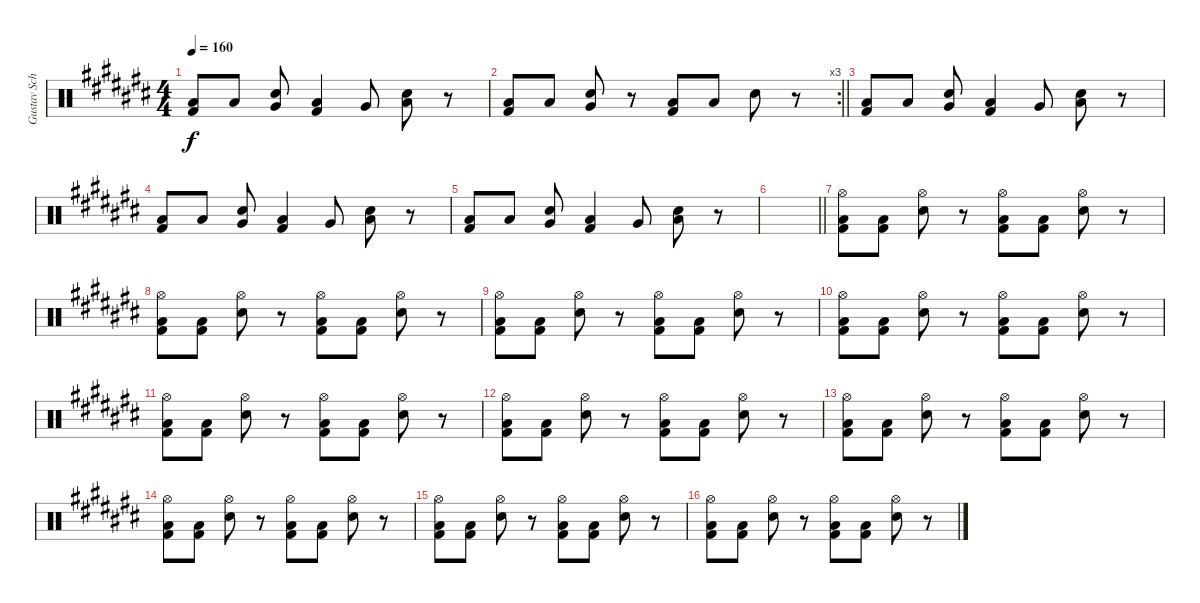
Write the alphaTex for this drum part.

\track ("Gustav Schäfer" "Gustav Sch") {instrument percussion}
\staff {score}
\articulation defaults
\ts (4 4)
\tempo 160
\clef neutral
\ks c#
("Low Floor Tom (hit)" "Kick (hit) 2").8{dy f} "Low Floor Tom (hit)".8 ("Electric Snare (hit)" "Very Low Tom (hit)").8 ("Low Floor Tom (hit)" "Kick (hit) 2").4 "Very Low Tom (hit)".8 ("Electric Snare (hit)" "Low Floor Tom (hit)").8 r.8 |
\rc 3
\barLineRight lightlight
("Low Floor Tom (hit)" "Kick (hit) 2").8 "Low Floor Tom (hit)".8 ("Electric Snare (hit)" "Very Low Tom (hit)").8 r.8 ("Low Floor Tom (hit)" "Kick (hit) 2").8 "Low Floor Tom (hit)".8 "Electric Snare (hit)".8 r.8 |
("Low Floor Tom (hit)" "Kick (hit) 2").8 "Low Floor Tom (hit)".8 ("Electric Snare (hit)" "Very Low Tom (hit)").8 ("Low Floor Tom (hit)" "Kick (hit) 2").4 "Very Low Tom (hit)".8 ("Electric Snare (hit)" "Low Floor Tom (hit)").8 r.8 |
("Low Floor Tom (hit)" "Kick (hit) 2").8 "Low Floor Tom (hit)".8 ("Electric Snare (hit)" "Very Low Tom (hit)").8 ("Low Floor Tom (hit)" "Kick (hit) 2").4 "Very Low Tom (hit)".8 ("Electric Snare (hit)" "Low Floor Tom (hit)").8 r.8 |
("Low Floor Tom (hit)" "Kick (hit) 2").8 "Low Floor Tom (hit)".8 ("Electric Snare (hit)" "Very Low Tom (hit)").8 ("Low Floor Tom (hit)" "Kick (hit) 2").4 "Very Low Tom (hit)".8 ("Electric Snare (hit)" "Low Floor Tom (hit)").8 r.8 |
\barLineRight lightlight
|
("Low Floor Tom (hit)" "Kick (hit) 2" "Hi-Hat (open)").8 ("Low Floor Tom (hit)" "Kick (hit) 2").8 ("Electric Snare (hit)" "Hi-Hat (open)").8 r.8 ("Low Floor Tom (hit)" "Kick (hit) 2" "Hi-Hat (open)").8 ("Low Floor Tom (hit)" "Kick (hit) 2").8 ("Electric Snare (hit)" "Hi-Hat (open)").8 r.8 |
("Low Floor Tom (hit)" "Kick (hit) 2" "Hi-Hat (open)").8 ("Low Floor Tom (hit)" "Kick (hit) 2").8 ("Electric Snare (hit)" "Hi-Hat (open)").8 r.8 ("Low Floor Tom (hit)" "Kick (hit) 2" "Hi-Hat (open)").8 ("Low Floor Tom (hit)" "Kick (hit) 2").8 ("Electric Snare (hit)" "Hi-Hat (open)").8 r.8 |
("Low Floor Tom (hit)" "Kick (hit) 2" "Hi-Hat (open)").8 ("Low Floor Tom (hit)" "Kick (hit) 2").8 ("Electric Snare (hit)" "Hi-Hat (open)").8 r.8 ("Low Floor Tom (hit)" "Kick (hit) 2" "Hi-Hat (open)").8 ("Low Floor Tom (hit)" "Kick (hit) 2").8 ("Electric Snare (hit)" "Hi-Hat (open)").8 r.8 |
("Low Floor Tom (hit)" "Kick (hit) 2" "Hi-Hat (open)").8 ("Low Floor Tom (hit)" "Kick (hit) 2").8 ("Electric Snare (hit)" "Hi-Hat (open)").8 r.8 ("Low Floor Tom (hit)" "Kick (hit) 2" "Hi-Hat (open)").8 ("Low Floor Tom (hit)" "Kick (hit) 2").8 ("Electric Snare (hit)" "Hi-Hat (open)").8 r.8 |
("Low Floor Tom (hit)" "Kick (hit) 2" "Hi-Hat (open)").8 ("Low Floor Tom (hit)" "Kick (hit) 2").8 ("Electric Snare (hit)" "Hi-Hat (open)").8 r.8 ("Low Floor Tom (hit)" "Kick (hit) 2" "Hi-Hat (open)").8 ("Low Floor Tom (hit)" "Kick (hit) 2").8 ("Electric Snare (hit)" "Hi-Hat (open)").8 r.8 |
("Low Floor Tom (hit)" "Kick (hit) 2" "Hi-Hat (open)").8 ("Low Floor Tom (hit)" "Kick (hit) 2").8 ("Electric Snare (hit)" "Hi-Hat (open)").8 r.8 ("Low Floor Tom (hit)" "Kick (hit) 2" "Hi-Hat (open)").8 ("Low Floor Tom (hit)" "Kick (hit) 2").8 ("Electric Snare (hit)" "Hi-Hat (open)").8 r.8 |
("Low Floor Tom (hit)" "Kick (hit) 2" "Hi-Hat (open)").8 ("Low Floor Tom (hit)" "Kick (hit) 2").8 ("Electric Snare (hit)" "Hi-Hat (open)").8 r.8 ("Low Floor Tom (hit)" "Kick (hit) 2" "Hi-Hat (open)").8 ("Low Floor Tom (hit)" "Kick (hit) 2").8 ("Electric Snare (hit)" "Hi-Hat (open)").8 r.8 |
("Low Floor Tom (hit)" "Kick (hit) 2" "Hi-Hat (open)").8 ("Low Floor Tom (hit)" "Kick (hit) 2").8 ("Electric Snare (hit)" "Hi-Hat (open)").8 r.8 ("Low Floor Tom (hit)" "Kick (hit) 2" "Hi-Hat (open)").8 ("Low Floor Tom (hit)" "Kick (hit) 2").8 ("Electric Snare (hit)" "Hi-Hat (open)").8 r.8 |
("Low Floor Tom (hit)" "Kick (hit) 2" "Hi-Hat (open)").8 ("Low Floor Tom (hit)" "Kick (hit) 2").8 ("Electric Snare (hit)" "Hi-Hat (open)").8 r.8 ("Low Floor Tom (hit)" "Kick (hit) 2" "Hi-Hat (open)").8 ("Low Floor Tom (hit)" "Kick (hit) 2").8 ("Electric Snare (hit)" "Hi-Hat (open)").8 r.8 |
("Low Floor Tom (hit)" "Kick (hit) 2" "Hi-Hat (open)").8 ("Low Floor Tom (hit)" "Kick (hit) 2").8 ("Electric Snare (hit)" "Hi-Hat (open)").8 r.8 ("Low Floor Tom (hit)" "Kick (hit) 2" "Hi-Hat (open)").8 ("Low Floor Tom (hit)" "Kick (hit) 2").8 ("Electric Snare (hit)" "Hi-Hat (open)").8 r.8
